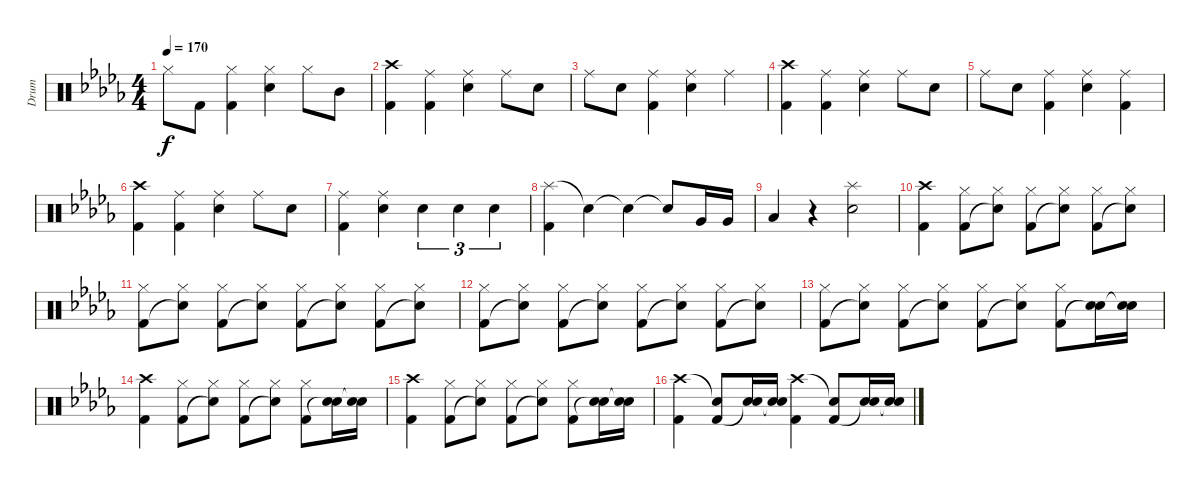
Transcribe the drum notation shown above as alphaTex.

\track ("Drum" "Drum") {instrument percussion}
\staff {score}
\articulation defaults
\ts (4 4)
\tempo 170
\clef neutral
\ks db "Hi-Hat (closed)".8{dy f} "Kick (hit) 2".8
("Hi-Hat (closed)" "Kick (hit) 2").4 ("Hi-Hat (closed)" "Electric Snare (hit)").4 "Hi-Hat (closed)".8 "Mid Tom (hit)".8 |
("Crash high (hit)" "Kick (hit) 2").4 ("Ride (middle)" "Kick (hit) 2").4 ("Ride (middle)" "Electric Snare (hit)").4 "Ride (middle)".8 "Electric Snare (hit)".8 |
"Ride (middle)".8 "Electric Snare (hit)".8 ("Ride (middle)" "Kick (hit) 2").4 ("Ride (middle)" "Electric Snare (hit)").4 "Ride (middle)".4 |
("Crash high (hit)" "Kick (hit) 2").4 ("Ride (middle)" "Kick (hit) 2").4 ("Ride (middle)" "Electric Snare (hit)").4 "Ride (middle)".8 "Electric Snare (hit)".8 |
"Ride (middle)".8 "Electric Snare (hit)".8 ("Ride (middle)" "Kick (hit) 2").4 ("Ride (middle)" "Electric Snare (hit)").4 ("Ride (middle)" "Kick (hit) 2").4 |
("Crash high (hit)" "Kick (hit) 2").4 ("Ride (middle)" "Kick (hit) 2").4 ("Ride (middle)" "Electric Snare (hit)").4 "Ride (middle)".8 "Electric Snare (hit)".8 |
("Ride (middle)" "Kick (hit) 2").4 ("Ride (middle)" "Electric Snare (hit)").4 "Electric Snare (hit)".4{tu (3 2)} "Electric Snare (hit)".4{tu (3 2)} "Electric Snare (hit)".4{tu (3 2)} |
("Splash (hit)" "Kick (hit) 2").4 "Snare (hit)"{t}.4 "Snare (hit)"{t}.4 "Snare (hit)"{t}.8 "Very Low Tom (hit)".16 "Very Low Tom (hit)".16 |
"Low Floor Tom (hit)".4 r.4 ("Splash (hit)" "Electric Snare (hit)").2 |
("Crash high (hit)" "Kick (hit) 2").4 ("Hi-Hat (closed)" "Kick (hit) 2").8 ("Hi-Hat (closed)" "Snare (hit)"{t}).8 ("Hi-Hat (closed)" "Kick (hit) 2").8 ("Hi-Hat (closed)" "Snare (hit)"{t}).8 ("Hi-Hat (closed)" "Kick (hit) 2").8 ("Hi-Hat (closed)" "Snare (hit)"{t}).8 |
("Hi-Hat (closed)" "Kick (hit) 2").8 ("Hi-Hat (closed)" "Snare (hit)"{t}).8 ("Hi-Hat (closed)" "Kick (hit) 2").8 ("Hi-Hat (closed)" "Snare (hit)"{t}).8 ("Hi-Hat (closed)" "Kick (hit) 2").8 ("Hi-Hat (closed)" "Snare (hit)"{t}).8 ("Hi-Hat (closed)" "Kick (hit) 2").8 ("Hi-Hat (closed)" "Snare (hit)"{t}).8 |
("Hi-Hat (closed)" "Kick (hit) 2").8 ("Hi-Hat (closed)" "Snare (hit)"{t}).8 ("Hi-Hat (closed)" "Kick (hit) 2").8 ("Hi-Hat (closed)" "Snare (hit)"{t}).8 ("Hi-Hat (closed)" "Kick (hit) 2").8 ("Hi-Hat (closed)" "Snare (hit)"{t}).8 ("Hi-Hat (closed)" "Kick (hit) 2").8 ("Hi-Hat (closed)" "Snare (hit)"{t}).8 |
("Hi-Hat (closed)" "Kick (hit) 2").8 ("Hi-Hat (closed)" "Snare (hit)"{t}).8 ("Hi-Hat (closed)" "Kick (hit) 2").8 ("Hi-Hat (closed)" "Snare (hit)"{t}).8 ("Hi-Hat (closed)" "Kick (hit) 2").8 ("Hi-Hat (closed)" "Snare (hit)"{t}).8 ("Hi-Hat (closed)" "Kick (hit) 2").8 ("Electric Snare (hit)" "Snare (hit)"{t}).16 ("Electric Snare (hit)" "Snare (hit)"{t}).16 |
("Crash high (hit)" "Kick (hit) 2").4 ("Hi-Hat (closed)" "Kick (hit) 2").8 ("Hi-Hat (closed)" "Snare (hit)"{t}).8 ("Hi-Hat (closed)" "Kick (hit) 2").8 ("Hi-Hat (closed)" "Snare (hit)"{t}).8 ("Hi-Hat (closed)" "Kick (hit) 2").8 ("Electric Snare (hit)" "Snare (hit)"{t}).16 ("Electric Snare (hit)" "Snare (hit)"{t}).16 |
("Crash high (hit)" "Kick (hit) 2").4 ("Hi-Hat (closed)" "Kick (hit) 2").8 ("Hi-Hat (closed)" "Snare (hit)"{t}).8 ("Hi-Hat (closed)" "Kick (hit) 2").8 ("Hi-Hat (closed)" "Snare (hit)"{t}).8 ("Hi-Hat (closed)" "Kick (hit) 2").8 ("Electric Snare (hit)" "Snare (hit)"{t}).16 ("Electric Snare (hit)" "Snare (hit)"{t}).16 |
("Crash high (hit)" "Kick (hit) 2").4 ("Snare (hit)"{t} "Kick (hit) 2").8 ("Electric Snare (hit)" "Snare (hit)"{t}).16 ("Electric Snare (hit)" "Snare (hit)"{t}).16 ("Crash high (hit)" "Kick (hit) 2").4 ("Snare (hit)"{t} "Kick (hit) 2").8 ("Electric Snare (hit)" "Snare (hit)"{t}).16 ("Electric Snare (hit)" "Snare (hit)"{t}).16
